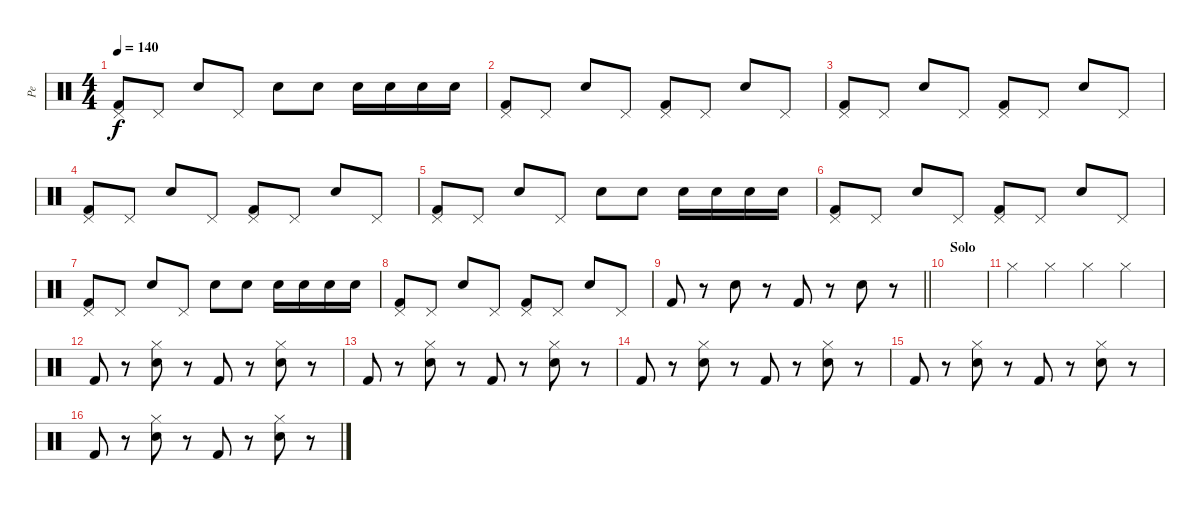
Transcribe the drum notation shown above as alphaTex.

\track ("Pe" "Pe") {instrument percussion}
\staff {score}
\articulation defaults
\ts (4 4)
\tempo 140
\clef neutral
\ks c
("Kick (hit) 2" "Pedal Hi-Hat (hit)").8{dy f} "Pedal Hi-Hat (hit)".8 "Snare (hit) 2".8 "Pedal Hi-Hat (hit)".8 "Snare (hit) 2".8 "Snare (hit) 2".8 "Snare (hit) 2".16 "Snare (hit) 2".16 "Snare (hit) 2".16 "Snare (hit) 2".16 |
("Kick (hit) 2" "Pedal Hi-Hat (hit)").8 "Pedal Hi-Hat (hit)".8 "Snare (hit) 2".8 "Pedal Hi-Hat (hit)".8 ("Kick (hit) 2" "Pedal Hi-Hat (hit)").8 "Pedal Hi-Hat (hit)".8 "Snare (hit) 2".8 "Pedal Hi-Hat (hit)".8 |
("Kick (hit) 2" "Pedal Hi-Hat (hit)").8 "Pedal Hi-Hat (hit)".8 "Snare (hit) 2".8 "Pedal Hi-Hat (hit)".8 ("Kick (hit) 2" "Pedal Hi-Hat (hit)").8 "Pedal Hi-Hat (hit)".8 "Snare (hit) 2".8 "Pedal Hi-Hat (hit)".8 |
("Kick (hit) 2" "Pedal Hi-Hat (hit)").8 "Pedal Hi-Hat (hit)".8 "Snare (hit) 2".8 "Pedal Hi-Hat (hit)".8 ("Kick (hit) 2" "Pedal Hi-Hat (hit)").8 "Pedal Hi-Hat (hit)".8 "Snare (hit) 2".8 "Pedal Hi-Hat (hit)".8 |
("Kick (hit) 2" "Pedal Hi-Hat (hit)").8 "Pedal Hi-Hat (hit)".8 "Snare (hit) 2".8 "Pedal Hi-Hat (hit)".8 "Snare (hit) 2".8 "Snare (hit) 2".8 "Snare (hit) 2".16 "Snare (hit) 2".16 "Snare (hit) 2".16 "Snare (hit) 2".16 |
("Kick (hit) 2" "Pedal Hi-Hat (hit)").8 "Pedal Hi-Hat (hit)".8 "Snare (hit) 2".8 "Pedal Hi-Hat (hit)".8 ("Kick (hit) 2" "Pedal Hi-Hat (hit)").8 "Pedal Hi-Hat (hit)".8 "Snare (hit) 2".8 "Pedal Hi-Hat (hit)".8 |
("Kick (hit) 2" "Pedal Hi-Hat (hit)").8 "Pedal Hi-Hat (hit)".8 "Snare (hit) 2".8 "Pedal Hi-Hat (hit)".8 "Snare (hit) 2".8 "Snare (hit) 2".8 "Snare (hit) 2".16 "Snare (hit) 2".16 "Snare (hit) 2".16 "Snare (hit) 2".16 |
("Kick (hit) 2" "Pedal Hi-Hat (hit)").8 "Pedal Hi-Hat (hit)".8 "Snare (hit) 2".8 "Pedal Hi-Hat (hit)".8 ("Kick (hit) 2" "Pedal Hi-Hat (hit)").8 "Pedal Hi-Hat (hit)".8 "Snare (hit) 2".8 "Pedal Hi-Hat (hit)".8 |
\barLineRight lightlight "Kick (hit) 2".8
r.8 "Snare (hit) 2".8 r.8 "Kick (hit) 2".8 r.8 "Snare (hit) 2".8 r.8 |
\section ("" "Solo")
|
"Hi-Hat (closed)".4 "Hi-Hat (closed)".4 "Hi-Hat (closed)".4 "Hi-Hat (closed)".4 |
"Kick (hit) 2".8 r.8 ("Snare (hit) 2" "Hi-Hat (closed)").8 r.8 "Kick (hit) 2".8 r.8 ("Snare (hit) 2" "Hi-Hat (closed)").8 r.8 |
"Kick (hit) 2".8 r.8 ("Snare (hit) 2" "Hi-Hat (closed)").8 r.8 "Kick (hit) 2".8 r.8 ("Snare (hit) 2" "Hi-Hat (closed)").8 r.8 |
"Kick (hit) 2".8 r.8 ("Snare (hit) 2" "Hi-Hat (closed)").8 r.8 "Kick (hit) 2".8 r.8 ("Snare (hit) 2" "Hi-Hat (closed)").8 r.8 |
"Kick (hit) 2".8 r.8 ("Snare (hit) 2" "Hi-Hat (closed)").8 r.8 "Kick (hit) 2".8 r.8 ("Snare (hit) 2" "Hi-Hat (closed)").8 r.8 |
"Kick (hit) 2".8 r.8 ("Snare (hit) 2" "Hi-Hat (closed)").8 r.8 "Kick (hit) 2".8 r.8 ("Snare (hit) 2" "Hi-Hat (closed)").8 r.8
